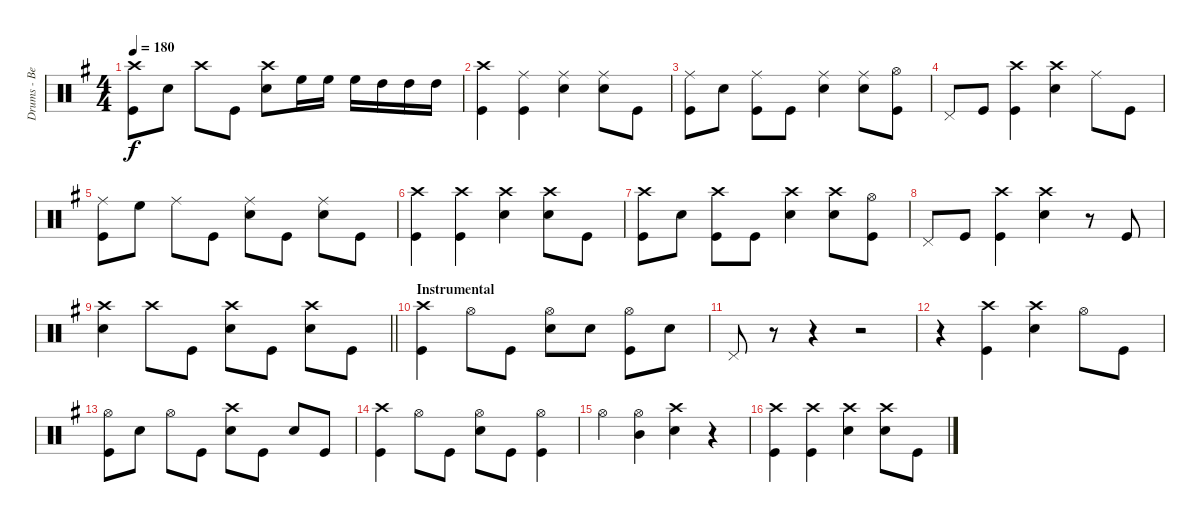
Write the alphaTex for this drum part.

\track ("Drums - Ben Johnston" "Drums - Be") {instrument percussion}
\staff {score}
\articulation defaults
\ts (4 4)
\tempo 180
\clef neutral
\ks eminor
("Crash high (hit)" "Kick (hit)").8{dy f} "Snare (hit) 2".8 "Crash high (hit)".8 "Kick (hit)".8 ("Crash high (hit)" "Snare (hit) 2").8 "High Floor Tom (hit)".16 "High Floor Tom (hit)".16 "High Floor Tom (hit)".16 "High Tom (hit)".16 "High Tom (hit)".16 "High Tom (hit)".16 |
("Crash high (hit)" "Kick (hit)").4 ("Ride (middle)" "Kick (hit)").4 ("Ride (middle)" "Snare (hit) 2").4 ("Ride (middle)" "Snare (hit) 2").8 "Kick (hit)".8 |
("Ride (middle)" "Kick (hit)").8 "Snare (hit) 2".8 ("Ride (middle)" "Kick (hit)").8 "Kick (hit)".8 ("Ride (middle)" "Snare (hit) 2").4 ("Ride (middle)" "Snare (hit) 2").8 ("Hi-Hat (open)" "Kick (hit)").8 |
"Pedal Hi-Hat (hit)".8 "Kick (hit)".8 ("Crash high (hit)" "Kick (hit)").4 ("Crash high (hit)" "Snare (hit) 2").4 "Ride (middle)".8 "Kick (hit)".8 |
("Ride (middle)" "Kick (hit)").8 "High Floor Tom (hit)".8 "Ride (middle)".8 "Kick (hit)".8 ("Ride (middle)" "Snare (hit) 2").8 "Kick (hit)".8 ("Ride (middle)" "Snare (hit) 2").8 "Kick (hit)".8 |
("Crash high (hit)" "Kick (hit)").4 ("Crash high (hit)" "Kick (hit)").4 ("Crash high (hit)" "Snare (hit) 2").4 ("Crash high (hit)" "Snare (hit) 2").8 "Kick (hit)".8 |
("Crash high (hit)" "Kick (hit)").8 "Snare (hit) 2".8 ("Crash high (hit)" "Kick (hit)").8 "Kick (hit)".8 ("Crash high (hit)" "Snare (hit) 2").4 ("Crash high (hit)" "Snare (hit) 2").8 ("Hi-Hat (open)" "Kick (hit)").8 |
"Pedal Hi-Hat (hit)".8 "Kick (hit)".8 ("Crash high (hit)" "Kick (hit)").4 ("Crash high (hit)" "Snare (hit) 2").4 r.8 "Kick (hit)".8 |
\barLineRight lightlight
("Crash high (hit)" "Snare (hit) 2").4 "Crash high (hit)".8 "Kick (hit)".8 ("Crash high (hit)" "Snare (hit) 2").8 "Kick (hit)".8 ("Crash high (hit)" "Snare (hit) 2").8 "Kick (hit)".8 |
\section ("" "Instrumental")
("Crash high (hit)" "Kick (hit)").4 "Hi-Hat (open)".8 "Kick (hit)".8 ("Hi-Hat (open)" "Snare (hit) 2").8 "Snare (hit) 2".8 ("Hi-Hat (open)" "Kick (hit)").8 "Snare (hit) 2".8 |
"Pedal Hi-Hat (hit)".8 r.8 r.4 r.2 |
r.4 ("Crash high (hit)" "Kick (hit)").4 ("Crash high (hit)" "Snare (hit) 2").4 "Hi-Hat (open)".8 "Kick (hit)".8 |
("Hi-Hat (open)" "Kick (hit)").8 "Snare (hit) 2".8 "Hi-Hat (open)".8 "Kick (hit)".8 ("Crash high (hit)" "Snare (hit) 2").8 "Kick (hit)".8 "Snare (hit) 2".8 "Kick (hit)".8 |
("Crash high (hit)" "Kick (hit)").4 "Hi-Hat (open)".8 "Kick (hit)".8 ("Hi-Hat (open)" "Snare (hit) 2").8 "Kick (hit)".8 ("Hi-Hat (open)" "Kick (hit)").4 |
"Hi-Hat (open)".4 ("Hi-Hat (open)" "Mid Tom (hit)").4 ("Crash high (hit)" "Snare (hit) 2").4 r.4 |
("Crash high (hit)" "Kick (hit)").4 ("Crash high (hit)" "Kick (hit)").4 ("Crash high (hit)" "Snare (hit) 2").4 ("Crash high (hit)" "Snare (hit) 2").8 "Kick (hit)".8
